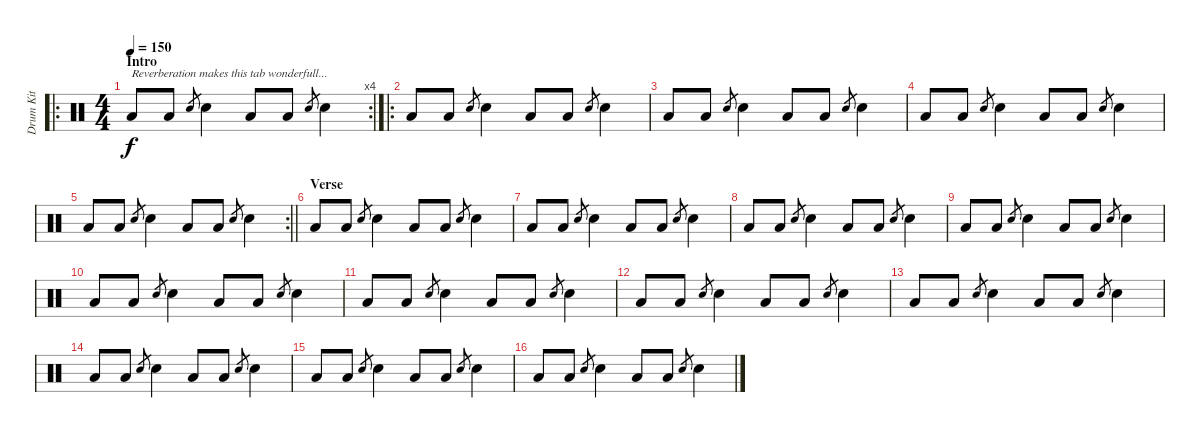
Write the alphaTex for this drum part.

\track ("Drum Kit" "Drum Kit") {instrument percussion}
\staff {score}
\articulation defaults
\ro
\rc 4
\ts (4 4)
\section ("" "Intro")
\tempo 150
\clef neutral
\ks c "Low Tom (hit)".8{txt "Reverberation makes this tab wonderfull..." dy f} "Low Tom (hit)".8 "Snare (hit)"{x}.8{gr} "Snare (hit) 2".4 "Low Tom (hit)".8 "Low Tom (hit)".8 "Snare (hit)"{x}.8{gr} "Snare (hit) 2".4
|
\ro "Low Tom (hit)".8 "Low Tom (hit)".8 "Snare (hit)"{x}.8{gr} "Snare (hit) 2".4 "Low Tom (hit)".8 "Low Tom (hit)".8 "Snare (hit)"{x}.8{gr} "Snare (hit) 2".4
|
"Low Tom (hit)".8 "Low Tom (hit)".8 "Snare (hit)"{x}.8{gr} "Snare (hit) 2".4 "Low Tom (hit)".8 "Low Tom (hit)".8 "Snare (hit)"{x}.8{gr} "Snare (hit) 2".4 |
"Low Tom (hit)".8 "Low Tom (hit)".8 "Snare (hit)"{x}.8{gr} "Snare (hit) 2".4 "Low Tom (hit)".8 "Low Tom (hit)".8 "Snare (hit)"{x}.8{gr} "Snare (hit) 2".4 |
\rc 2
\barLineRight lightlight "Low Tom (hit)".8 "Low Tom (hit)".8 "Snare (hit)"{x}.8{gr} "Snare (hit) 2".4 "Low Tom (hit)".8 "Low Tom (hit)".8 "Snare (hit)"{x}.8{gr} "Snare (hit) 2".4
|
\section ("" "Verse")
"Low Tom (hit)".8 "Low Tom (hit)".8 "Snare (hit)"{x}.8{gr} "Snare (hit) 2".4 "Low Tom (hit)".8 "Low Tom (hit)".8 "Snare (hit)"{x}.8{gr} "Snare (hit) 2".4 |
"Low Tom (hit)".8 "Low Tom (hit)".8 "Snare (hit)"{x}.8{gr} "Snare (hit) 2".4 "Low Tom (hit)".8 "Low Tom (hit)".8 "Snare (hit)"{x}.8{gr} "Snare (hit) 2".4 |
"Low Tom (hit)".8 "Low Tom (hit)".8 "Snare (hit)"{x}.8{gr} "Snare (hit) 2".4 "Low Tom (hit)".8 "Low Tom (hit)".8 "Snare (hit)"{x}.8{gr} "Snare (hit) 2".4 |
"Low Tom (hit)".8 "Low Tom (hit)".8 "Snare (hit)"{x}.8{gr} "Snare (hit) 2".4 "Low Tom (hit)".8 "Low Tom (hit)".8 "Snare (hit)"{x}.8{gr} "Snare (hit) 2".4 |
"Low Tom (hit)".8 "Low Tom (hit)".8 "Snare (hit)"{x}.8{gr} "Snare (hit) 2".4 "Low Tom (hit)".8 "Low Tom (hit)".8 "Snare (hit)"{x}.8{gr} "Snare (hit) 2".4 |
"Low Tom (hit)".8 "Low Tom (hit)".8 "Snare (hit)"{x}.8{gr} "Snare (hit) 2".4 "Low Tom (hit)".8 "Low Tom (hit)".8 "Snare (hit)"{x}.8{gr} "Snare (hit) 2".4 |
"Low Tom (hit)".8 "Low Tom (hit)".8 "Snare (hit)"{x}.8{gr} "Snare (hit) 2".4 "Low Tom (hit)".8 "Low Tom (hit)".8 "Snare (hit)"{x}.8{gr} "Snare (hit) 2".4 |
"Low Tom (hit)".8 "Low Tom (hit)".8 "Snare (hit)"{x}.8{gr} "Snare (hit) 2".4 "Low Tom (hit)".8 "Low Tom (hit)".8 "Snare (hit)"{x}.8{gr} "Snare (hit) 2".4 |
"Low Tom (hit)".8 "Low Tom (hit)".8 "Snare (hit)"{x}.8{gr} "Snare (hit) 2".4 "Low Tom (hit)".8 "Low Tom (hit)".8 "Snare (hit)"{x}.8{gr} "Snare (hit) 2".4 |
"Low Tom (hit)".8 "Low Tom (hit)".8 "Snare (hit)"{x}.8{gr} "Snare (hit) 2".4 "Low Tom (hit)".8 "Low Tom (hit)".8 "Snare (hit)"{x}.8{gr} "Snare (hit) 2".4 |
"Low Tom (hit)".8 "Low Tom (hit)".8 "Snare (hit)"{x}.8{gr} "Snare (hit) 2".4 "Low Tom (hit)".8 "Low Tom (hit)".8 "Snare (hit)"{x}.8{gr} "Snare (hit) 2".4
